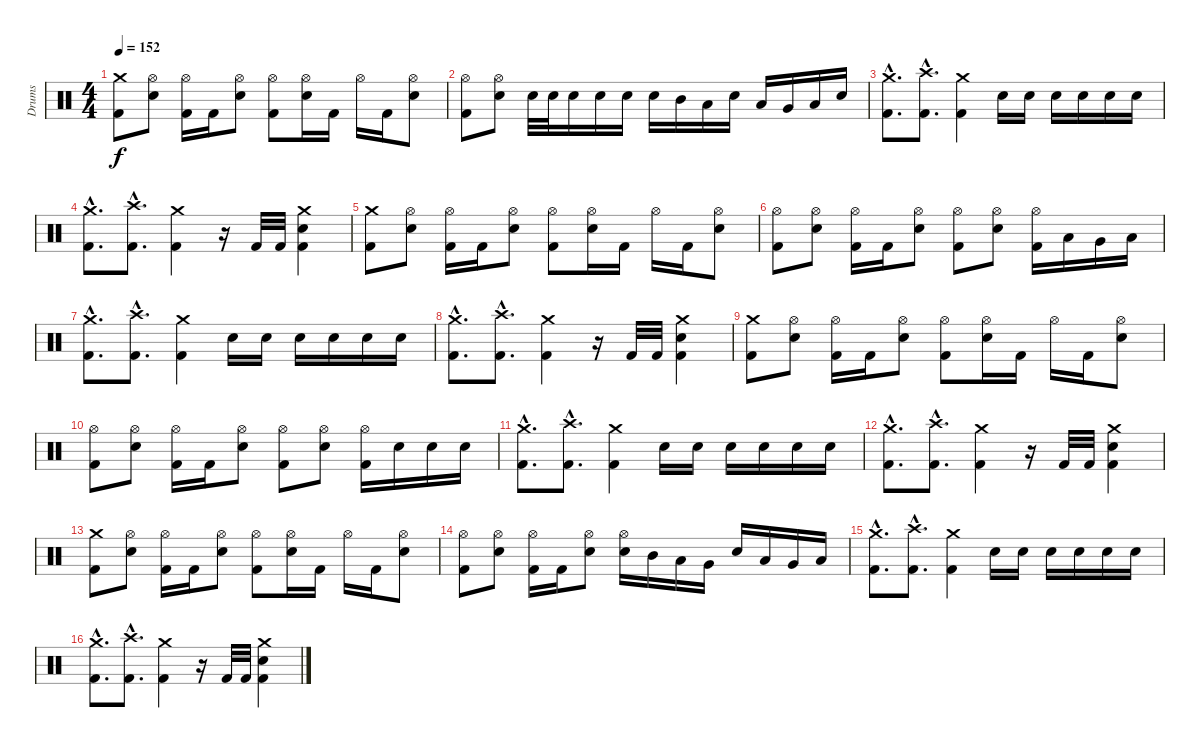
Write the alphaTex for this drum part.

\track ("Drums" "Drums") {instrument percussion}
\staff {score}
\articulation defaults
\ts (4 4)
\tempo 152
\clef neutral
\ks c
("Crash medium (hit)" "Kick (hit) 2").8{dy f} ("Hi-Hat (open)" "Snare (hit) 2").8 ("Hi-Hat (open)" "Kick (hit) 2").16 "Kick (hit) 2".16 ("Hi-Hat (open)" "Snare (hit) 2").8 ("Hi-Hat (open)" "Kick (hit) 2").8 ("Hi-Hat (open)" "Snare (hit) 2").16 "Kick (hit) 2".16 "Hi-Hat (open)".16 "Kick (hit) 2".16 ("Hi-Hat (open)" "Snare (hit) 2").8 |
("Hi-Hat (open)" "Kick (hit) 2").8 ("Hi-Hat (open)" "Snare (hit) 2").8 "Snare (hit) 2".32 "Snare (hit) 2".32 "Snare (hit) 2".16 "Snare (hit) 2".16 "Snare (hit) 2".16 "Snare (hit) 2".16 "Mid Tom (hit)".16 "Low Tom (hit)".16 "Snare (hit) 2".16 "Low Tom (hit)".16 "Very Low Tom (hit)".16 "Low Floor Tom (hit)".16 "Snare (hit) 2".16 |
("Crash medium (hit)"{hac} "Kick (hit) 2"{hac}).8{d} ("Crash high (hit)"{hac} "Kick (hit) 2"{hac}).8{d} ("Crash medium (hit)" "Kick (hit) 2").4 "Snare (hit) 2".16 "Snare (hit) 2".16 "Snare (hit) 2".16 "Snare (hit) 2".16 "Snare (hit) 2".16 "Snare (hit) 2".16 |
("Crash medium (hit)"{hac} "Kick (hit) 2"{hac}).8{d} ("Crash high (hit)"{hac} "Kick (hit) 2"{hac}).8{d} ("Crash medium (hit)" "Kick (hit) 2").4 r.16 "Kick (hit) 2".32 "Kick (hit) 2".32 ("Crash medium (hit)" "Snare (hit) 2" "Kick (hit) 2").4 |
("Crash medium (hit)" "Kick (hit) 2").8 ("Hi-Hat (open)" "Snare (hit) 2").8 ("Hi-Hat (open)" "Kick (hit) 2").16 "Kick (hit) 2".16 ("Hi-Hat (open)" "Snare (hit) 2").8 ("Hi-Hat (open)" "Kick (hit) 2").8 ("Hi-Hat (open)" "Snare (hit) 2").16 "Kick (hit) 2".16 "Hi-Hat (open)".16 "Kick (hit) 2".16 ("Hi-Hat (open)" "Snare (hit) 2").8 |
("Hi-Hat (open)" "Kick (hit) 2").8 ("Hi-Hat (open)" "Snare (hit) 2").8 ("Hi-Hat (open)" "Kick (hit) 2").16 "Kick (hit) 2".16 ("Hi-Hat (open)" "Snare (hit) 2").8 ("Hi-Hat (open)" "Kick (hit) 2").8 ("Hi-Hat (open)" "Snare (hit) 2").8 ("Hi-Hat (open)" "Kick (hit) 2").16 "Low Tom (hit)".16 "Very Low Tom (hit)".16 "Low Floor Tom (hit)".16 |
("Crash medium (hit)"{hac} "Kick (hit) 2"{hac}).8{d} ("Crash high (hit)"{hac} "Kick (hit) 2"{hac}).8{d} ("Crash medium (hit)" "Kick (hit) 2").4 "Snare (hit) 2".16 "Snare (hit) 2".16 "Snare (hit) 2".16 "Snare (hit) 2".16 "Snare (hit) 2".16 "Snare (hit) 2".16 |
("Crash medium (hit)"{hac} "Kick (hit) 2"{hac}).8{d} ("Crash high (hit)"{hac} "Kick (hit) 2"{hac}).8{d} ("Crash medium (hit)" "Kick (hit) 2").4 r.16 "Kick (hit) 2".32 "Kick (hit) 2".32 ("Crash medium (hit)" "Snare (hit) 2" "Kick (hit) 2").4 |
("Crash medium (hit)" "Kick (hit) 2").8 ("Hi-Hat (open)" "Snare (hit) 2").8 ("Hi-Hat (open)" "Kick (hit) 2").16 "Kick (hit) 2".16 ("Hi-Hat (open)" "Snare (hit) 2").8 ("Hi-Hat (open)" "Kick (hit) 2").8 ("Hi-Hat (open)" "Snare (hit) 2").16 "Kick (hit) 2".16 "Hi-Hat (open)".16 "Kick (hit) 2".16 ("Hi-Hat (open)" "Snare (hit) 2").8 |
("Hi-Hat (open)" "Kick (hit) 2").8 ("Hi-Hat (open)" "Snare (hit) 2").8 ("Hi-Hat (open)" "Kick (hit) 2").16 "Kick (hit) 2".16 ("Hi-Hat (open)" "Snare (hit) 2").8 ("Hi-Hat (open)" "Kick (hit) 2").8 ("Hi-Hat (open)" "Snare (hit) 2").8 ("Hi-Hat (open)" "Kick (hit) 2").16 "Snare (hit) 2".16 "Snare (hit) 2".16 "Snare (hit) 2".16 |
("Crash medium (hit)"{hac} "Kick (hit) 2"{hac}).8{d} ("Crash high (hit)"{hac} "Kick (hit) 2"{hac}).8{d} ("Crash medium (hit)" "Kick (hit) 2").4 "Snare (hit) 2".16 "Snare (hit) 2".16 "Snare (hit) 2".16 "Snare (hit) 2".16 "Snare (hit) 2".16 "Snare (hit) 2".16 |
("Crash medium (hit)"{hac} "Kick (hit) 2"{hac}).8{d} ("Crash high (hit)"{hac} "Kick (hit) 2"{hac}).8{d} ("Crash medium (hit)" "Kick (hit) 2").4 r.16 "Kick (hit) 2".32 "Kick (hit) 2".32 ("Crash medium (hit)" "Snare (hit) 2" "Kick (hit) 2").4 |
("Crash medium (hit)" "Kick (hit) 2").8 ("Hi-Hat (open)" "Snare (hit) 2").8 ("Hi-Hat (open)" "Kick (hit) 2").16 "Kick (hit) 2".16 ("Hi-Hat (open)" "Snare (hit) 2").8 ("Hi-Hat (open)" "Kick (hit) 2").8 ("Hi-Hat (open)" "Snare (hit) 2").16 "Kick (hit) 2".16 "Hi-Hat (open)".16 "Kick (hit) 2".16 ("Hi-Hat (open)" "Snare (hit) 2").8 |
("Hi-Hat (open)" "Kick (hit) 2").8 ("Hi-Hat (open)" "Snare (hit) 2").8 ("Hi-Hat (open)" "Kick (hit) 2").16 "Kick (hit) 2".16 ("Hi-Hat (open)" "Snare (hit) 2").8 ("Hi-Hat (open)" "Snare (hit) 2").16 "Mid Tom (hit)".16 "Low Tom (hit)".16 "Very Low Tom (hit)".16 "Snare (hit) 2".16 "Low Tom (hit)".16 "Very Low Tom (hit)".16 "Low Floor Tom (hit)".16 |
("Crash medium (hit)"{hac} "Kick (hit) 2"{hac}).8{d} ("Crash high (hit)"{hac} "Kick (hit) 2"{hac}).8{d} ("Crash medium (hit)" "Kick (hit) 2").4 "Snare (hit) 2".16 "Snare (hit) 2".16 "Snare (hit) 2".16 "Snare (hit) 2".16 "Snare (hit) 2".16 "Snare (hit) 2".16 |
("Crash medium (hit)"{hac} "Kick (hit) 2"{hac}).8{d} ("Crash high (hit)"{hac} "Kick (hit) 2"{hac}).8{d} ("Crash medium (hit)" "Kick (hit) 2").4 r.16 "Kick (hit) 2".32 "Kick (hit) 2".32 ("Crash medium (hit)" "Snare (hit) 2" "Kick (hit) 2").4
